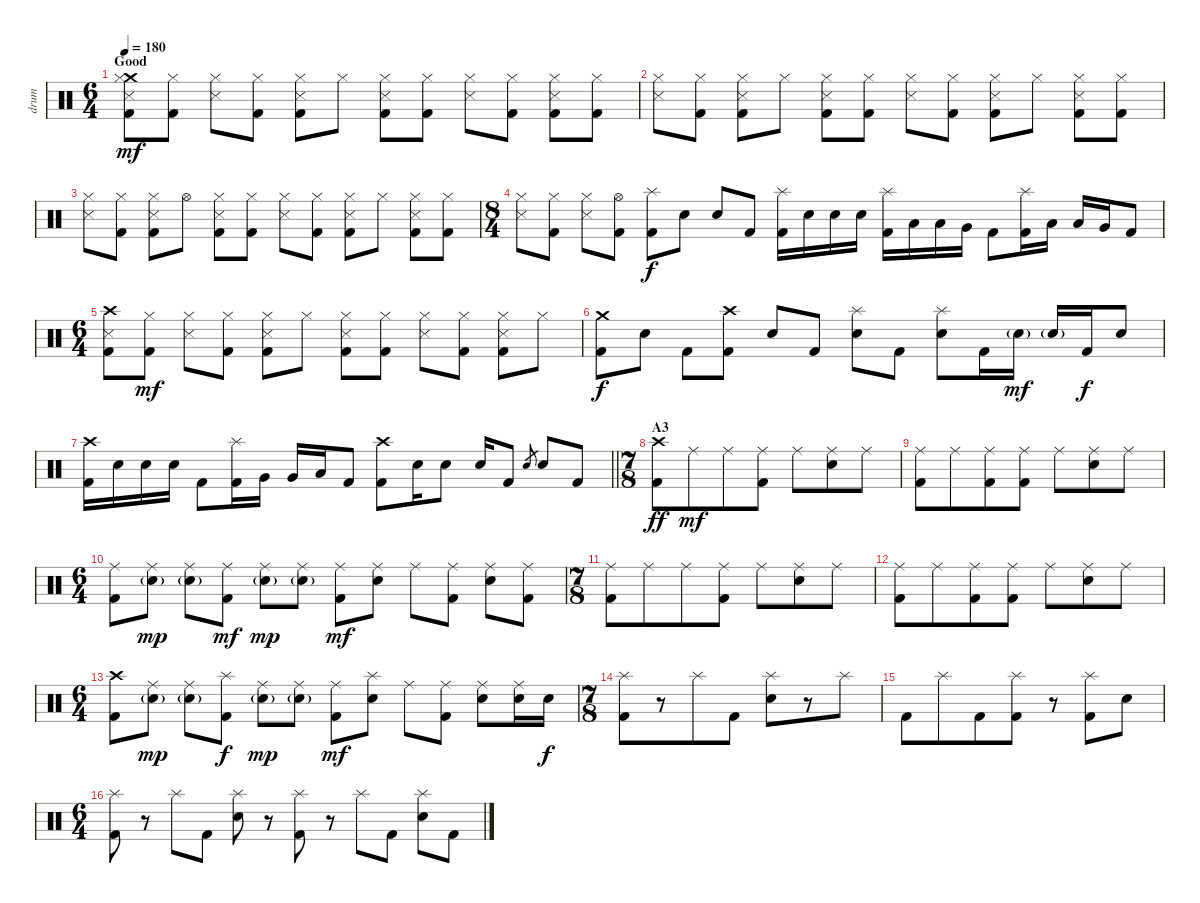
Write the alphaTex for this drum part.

\track ("drum" "drum") {instrument percussion}
\staff {score}
\articulation defaults
\ts (6 4)
\section ("" "Good")
\tempo 180
\clef neutral
\ks c
("Crash medium (hit)" "Hi-Hat (closed)" "Snare (side stick) 3" "Kick (hit) 2").8{dy mf} ("Hi-Hat (closed)" "Kick (hit) 2").8 ("Hi-Hat (closed)" "Snare (side stick) 3").8 ("Hi-Hat (closed)" "Kick (hit) 2").8 ("Hi-Hat (closed)" "Snare (side stick) 3" "Kick (hit) 2").8 "Hi-Hat (closed)".8 ("Hi-Hat (closed)" "Snare (side stick) 3" "Kick (hit) 2").8 ("Hi-Hat (closed)" "Kick (hit) 2").8 ("Hi-Hat (closed)" "Snare (side stick) 3").8 ("Hi-Hat (closed)" "Kick (hit) 2").8 ("Hi-Hat (closed)" "Snare (side stick) 3" "Kick (hit) 2").8 ("Hi-Hat (closed)" "Kick (hit) 2").8 |
("Hi-Hat (closed)" "Snare (side stick) 3").8 ("Hi-Hat (closed)" "Kick (hit) 2").8 ("Hi-Hat (closed)" "Snare (side stick) 3" "Kick (hit) 2").8 "Hi-Hat (closed)".8 ("Hi-Hat (closed)" "Snare (side stick) 3" "Kick (hit) 2").8 ("Hi-Hat (closed)" "Kick (hit) 2").8 ("Hi-Hat (closed)" "Snare (side stick) 3").8 ("Hi-Hat (closed)" "Kick (hit) 2").8 ("Hi-Hat (closed)" "Snare (side stick) 3" "Kick (hit) 2").8 "Hi-Hat (closed)".8 ("Hi-Hat (closed)" "Snare (side stick) 3" "Kick (hit) 2").8 ("Hi-Hat (closed)" "Kick (hit) 2").8 |
("Hi-Hat (closed)" "Snare (side stick) 3").8 ("Hi-Hat (closed)" "Kick (hit) 2").8 ("Hi-Hat (closed)" "Snare (side stick) 3" "Kick (hit) 2").8 "Hi-Hat (open)".8 ("Hi-Hat (closed)" "Snare (side stick) 3" "Kick (hit) 2").8 ("Hi-Hat (closed)" "Kick (hit) 2").8 ("Hi-Hat (closed)" "Snare (side stick) 3").8 ("Hi-Hat (closed)" "Kick (hit) 2").8 ("Hi-Hat (closed)" "Snare (side stick) 3" "Kick (hit) 2").8 "Hi-Hat (closed)".8 ("Hi-Hat (closed)" "Snare (side stick) 3" "Kick (hit) 2").8 ("Hi-Hat (closed)" "Kick (hit) 2").8 |
\ts (8 4)
("Hi-Hat (closed)" "Snare (side stick) 3").8 ("Hi-Hat (closed)" "Kick (hit) 2").8 ("Hi-Hat (closed)" "Snare (side stick) 3").8 ("Hi-Hat (open)" "Kick (hit) 2").8 ("Splash (hit)" "Kick (hit) 2").8{dy f} "Electric Snare (hit)".8 "Electric Snare (hit)".8 "Kick (hit) 2".8 ("Splash (hit)" "Kick (hit) 2").16 "Electric Snare (hit)".16 "Electric Snare (hit)".16 "Electric Snare (hit)".16 ("Splash (hit)" "Kick (hit) 2").16 "Low Tom (hit)".16 "Low Tom (hit)".16 "Very Low Tom (hit)".16 "Kick (hit) 2".8 ("Splash (hit)" "Kick (hit) 2").16 "Low Tom (hit)".16 "Low Tom (hit)".16 "Very Low Tom (hit)".16 "Kick (hit) 2".8 |
\ts (6 4)
("Crash high (hit)" "Snare (side stick) 3" "Kick (hit) 2").8 ("Hi-Hat (closed)" "Kick (hit) 2").8{dy mf} ("Hi-Hat (closed)" "Snare (side stick) 3").8 ("Hi-Hat (closed)" "Kick (hit) 2").8 ("Hi-Hat (closed)" "Snare (side stick) 3" "Kick (hit) 2").8 "Hi-Hat (closed)".8 ("Hi-Hat (closed)" "Snare (side stick) 3" "Kick (hit) 2").8 ("Hi-Hat (closed)" "Kick (hit) 2").8 ("Hi-Hat (closed)" "Snare (side stick) 3").8 ("Hi-Hat (closed)" "Kick (hit) 2").8 ("Hi-Hat (closed)" "Snare (side stick) 3" "Kick (hit) 2").8 "Hi-Hat (closed)".8 |
("Crash medium (hit)" "Kick (hit) 2").8{dy f} "Electric Snare (hit)".8 "Kick (hit) 2".8 ("Crash high (hit)" "Kick (hit) 2").8 "Electric Snare (hit)".8 "Kick (hit) 2".8 ("Splash (hit)" "Electric Snare (hit)").8 "Kick (hit) 2".8 ("Splash (hit)" "Electric Snare (hit)").8 "Kick (hit) 2".16 "Electric Snare (hit)"{g}.16{dy mf} "Electric Snare (hit)"{g}.16 "Kick (hit) 2".16{dy f} "Electric Snare (hit)".8 |
\barLineRight lightlight
("Crash high (hit)" "Kick (hit) 2").16 "Electric Snare (hit)".16 "Electric Snare (hit)".16 "Electric Snare (hit)".16 "Kick (hit) 2".8 ("Splash (hit)" "Kick (hit) 2").16 "Very Low Tom (hit)".16 "Very Low Tom (hit)".16 "Low Floor Tom (hit)".16 "Kick (hit) 2".8 ("Crash high (hit)" "Kick (hit) 2").8 "Electric Snare (hit)".16 "Electric Snare (hit)".8 "Electric Snare (hit)".16 "Kick (hit) 2".8 "Electric Snare (hit)".8{gr} "Electric Snare (hit)".8 "Kick (hit) 2".8 |
\ts (7 8)
\section ("" "A3")
("Crash high (hit)" "Kick (hit) 2").8{dy ff} "Ride (middle)".8{dy mf} "Ride (middle)".8 ("Ride (middle)" "Kick (hit) 2").8 "Ride (middle)".8 ("Ride (middle)" "Electric Snare (hit)").8 "Ride (middle)".8 |
("Ride (middle)" "Kick (hit) 2").8 "Ride (middle)".8 ("Ride (middle)" "Kick (hit) 2").8 ("Ride (middle)" "Kick (hit) 2").8 "Ride (middle)".8 ("Ride (middle)" "Electric Snare (hit)").8 "Ride (middle)".8 |
\ts (6 4)
("Ride (middle)" "Kick (hit) 2").8 ("Ride (middle)" "Electric Snare (hit)"{g}).8{dy mp} ("Ride (middle)" "Electric Snare (hit)"{g}).8 ("Ride (middle)" "Kick (hit) 2").8{dy mf} ("Ride (middle)" "Electric Snare (hit)"{g}).8{dy mp} ("Ride (middle)" "Electric Snare (hit)"{g}).8 ("Ride (middle)" "Kick (hit) 2").8{dy mf} ("Ride (middle)" "Electric Snare (hit)").8 "Ride (middle)".8 ("Ride (middle)" "Kick (hit) 2").8 ("Ride (middle)" "Electric Snare (hit)").8 ("Ride (middle)" "Kick (hit) 2").8 |
\ts (7 8)
("Ride (middle)" "Kick (hit) 2").8 "Ride (middle)".8 "Ride (middle)".8 ("Ride (middle)" "Kick (hit) 2").8 "Ride (middle)".8 ("Ride (middle)" "Electric Snare (hit)").8 "Ride (middle)".8 |
("Ride (middle)" "Kick (hit) 2").8 "Ride (middle)".8 ("Ride (middle)" "Kick (hit) 2").8 ("Ride (middle)" "Kick (hit) 2").8 "Ride (middle)".8 ("Ride (middle)" "Electric Snare (hit)").8 "Ride (middle)".8 |
\ts (6 4)
("Crash high (hit)" "Kick (hit) 2").8 ("Ride (middle)" "Electric Snare (hit)"{g}).8{dy mp} ("Ride (middle)" "Electric Snare (hit)"{g}).8 ("Splash (hit)" "Kick (hit) 2").8{dy f} ("Ride (middle)" "Electric Snare (hit)"{g}).8{dy mp} ("Ride (middle)" "Electric Snare (hit)"{g}).8 ("Ride (middle)" "Kick (hit) 2").8{dy mf} ("Splash (hit)" "Electric Snare (hit)").8 "Ride (middle)".8 ("Ride (middle)" "Kick (hit) 2").8 ("Ride (middle)" "Electric Snare (hit)").8 ("Ride (middle)" "Electric Snare (hit)").16 "Electric Snare (hit)".16{dy f} |
\ts (7 8)
("Splash (hit)" "Kick (hit) 2").8 r.8 "Splash (hit)".8 "Kick (hit) 2".8 ("Splash (hit)" "Electric Snare (hit)").8 r.8 "Splash (hit)".8 |
"Kick (hit) 2".8 "Splash (hit)".8 "Kick (hit) 2".8 ("Splash (hit)" "Kick (hit) 2").8 r.8 ("Splash (hit)" "Kick (hit) 2").8 "Electric Snare (hit)".8 |
\ts (6 4)
("Splash (hit)" "Kick (hit) 2").8 r.8 "Splash (hit)".8 "Kick (hit) 2".8 ("Splash (hit)" "Electric Snare (hit)").8 r.8 ("Splash (hit)" "Kick (hit) 2").8 r.8 "Splash (hit)".8 "Kick (hit) 2".8 ("Splash (hit)" "Electric Snare (hit)").8 "Kick (hit) 2".8
